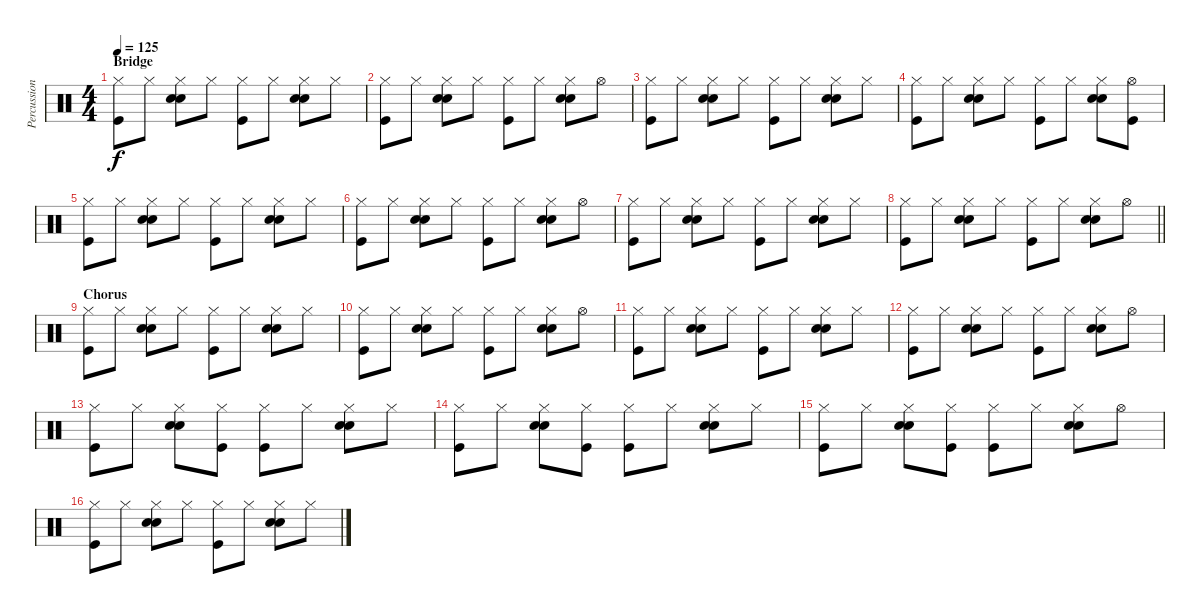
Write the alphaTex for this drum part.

\track ("Percussion" "Percussion") {instrument percussion}
\staff {score}
\articulation defaults
\ts (4 4)
\section ("" "Bridge")
\tempo 125
\clef neutral
\ks c
("Hi-Hat (closed)" "Kick (hit)").8{dy f} "Hi-Hat (closed)".8 ("Hi-Hat (closed)" "Hand Clap (hit)" "Snare (hit) 2").8 "Hi-Hat (closed)".8 ("Hi-Hat (closed)" "Kick (hit)").8 "Hi-Hat (closed)".8 ("Hi-Hat (closed)" "Hand Clap (hit)" "Snare (hit) 2").8 "Hi-Hat (closed)".8 |
("Hi-Hat (closed)" "Kick (hit)").8 "Hi-Hat (closed)".8 ("Hi-Hat (closed)" "Hand Clap (hit)" "Snare (hit) 2").8 "Hi-Hat (closed)".8 ("Hi-Hat (closed)" "Kick (hit)").8 "Hi-Hat (closed)".8 ("Hi-Hat (closed)" "Hand Clap (hit)" "Snare (hit) 2").8 "Hi-Hat (open)".8 |
("Hi-Hat (closed)" "Kick (hit)").8 "Hi-Hat (closed)".8 ("Hi-Hat (closed)" "Hand Clap (hit)" "Snare (hit) 2").8 "Hi-Hat (closed)".8 ("Hi-Hat (closed)" "Kick (hit)").8 "Hi-Hat (closed)".8 ("Hi-Hat (closed)" "Hand Clap (hit)" "Snare (hit) 2").8 "Hi-Hat (closed)".8 |
("Hi-Hat (closed)" "Kick (hit)").8 "Hi-Hat (closed)".8 ("Hi-Hat (closed)" "Hand Clap (hit)" "Snare (hit) 2").8 "Hi-Hat (closed)".8 ("Hi-Hat (closed)" "Kick (hit)").8 "Hi-Hat (closed)".8 ("Hi-Hat (closed)" "Hand Clap (hit)" "Snare (hit) 2").8 ("Hi-Hat (open)" "Kick (hit)").8 |
("Hi-Hat (closed)" "Kick (hit)").8 "Hi-Hat (closed)".8 ("Hi-Hat (closed)" "Hand Clap (hit)" "Snare (hit) 2").8 "Hi-Hat (closed)".8 ("Hi-Hat (closed)" "Kick (hit)").8 "Hi-Hat (closed)".8 ("Hi-Hat (closed)" "Hand Clap (hit)" "Snare (hit) 2").8 "Hi-Hat (closed)".8 |
("Hi-Hat (closed)" "Kick (hit)").8 "Hi-Hat (closed)".8 ("Hi-Hat (closed)" "Hand Clap (hit)" "Snare (hit) 2").8 "Hi-Hat (closed)".8 ("Hi-Hat (closed)" "Kick (hit)").8 "Hi-Hat (closed)".8 ("Hi-Hat (closed)" "Hand Clap (hit)" "Snare (hit) 2").8 "Hi-Hat (open)".8 |
("Hi-Hat (closed)" "Kick (hit)").8 "Hi-Hat (closed)".8 ("Hi-Hat (closed)" "Hand Clap (hit)" "Snare (hit) 2").8 "Hi-Hat (closed)".8 ("Hi-Hat (closed)" "Kick (hit)").8 "Hi-Hat (closed)".8 ("Hi-Hat (closed)" "Hand Clap (hit)" "Snare (hit) 2").8 "Hi-Hat (closed)".8 |
\barLineRight lightlight
("Hi-Hat (closed)" "Kick (hit)").8 "Hi-Hat (closed)".8 ("Hi-Hat (closed)" "Hand Clap (hit)" "Snare (hit) 2").8 "Hi-Hat (closed)".8 ("Hi-Hat (closed)" "Kick (hit)").8 "Hi-Hat (closed)".8 ("Hi-Hat (closed)" "Hand Clap (hit)" "Snare (hit) 2").8 "Hi-Hat (open)".8 |
\section ("" "Chorus")
("Hi-Hat (closed)" "Kick (hit)").8 "Hi-Hat (closed)".8 ("Hi-Hat (closed)" "Hand Clap (hit)" "Snare (hit) 2").8 "Hi-Hat (closed)".8 ("Hi-Hat (closed)" "Kick (hit)").8 "Hi-Hat (closed)".8 ("Hi-Hat (closed)" "Hand Clap (hit)" "Snare (hit) 2").8 "Hi-Hat (closed)".8 |
("Hi-Hat (closed)" "Kick (hit)").8 "Hi-Hat (closed)".8 ("Hi-Hat (closed)" "Hand Clap (hit)" "Snare (hit) 2").8 "Hi-Hat (closed)".8 ("Hi-Hat (closed)" "Kick (hit)").8 "Hi-Hat (closed)".8 ("Hi-Hat (closed)" "Hand Clap (hit)" "Snare (hit) 2").8 "Hi-Hat (open)".8 |
("Hi-Hat (closed)" "Kick (hit)").8 "Hi-Hat (closed)".8 ("Hi-Hat (closed)" "Hand Clap (hit)" "Snare (hit) 2").8 "Hi-Hat (closed)".8 ("Hi-Hat (closed)" "Kick (hit)").8 "Hi-Hat (closed)".8 ("Hi-Hat (closed)" "Hand Clap (hit)" "Snare (hit) 2").8 "Hi-Hat (closed)".8 |
("Hi-Hat (closed)" "Kick (hit)").8 "Hi-Hat (closed)".8 ("Hi-Hat (closed)" "Hand Clap (hit)" "Snare (hit) 2").8 "Hi-Hat (closed)".8 ("Hi-Hat (closed)" "Kick (hit)").8 "Hi-Hat (closed)".8 ("Hi-Hat (closed)" "Hand Clap (hit)" "Snare (hit) 2").8 "Hi-Hat (open)".8 |
("Hi-Hat (closed)" "Kick (hit)").8 "Hi-Hat (closed)".8 ("Hi-Hat (closed)" "Hand Clap (hit)" "Snare (hit) 2").8 ("Hi-Hat (closed)" "Kick (hit)").8 ("Hi-Hat (closed)" "Kick (hit)").8 "Hi-Hat (closed)".8 ("Hi-Hat (closed)" "Hand Clap (hit)" "Snare (hit) 2").8 "Hi-Hat (closed)".8 |
("Hi-Hat (closed)" "Kick (hit)").8 "Hi-Hat (closed)".8 ("Hi-Hat (closed)" "Hand Clap (hit)" "Snare (hit) 2").8 ("Hi-Hat (closed)" "Kick (hit)").8 ("Hi-Hat (closed)" "Kick (hit)").8 "Hi-Hat (closed)".8 ("Hi-Hat (closed)" "Hand Clap (hit)" "Snare (hit) 2").8 "Hi-Hat (closed)".8 |
("Hi-Hat (closed)" "Kick (hit)").8 "Hi-Hat (closed)".8 ("Hi-Hat (closed)" "Hand Clap (hit)" "Snare (hit) 2").8 ("Hi-Hat (closed)" "Kick (hit)").8 ("Hi-Hat (closed)" "Kick (hit)").8 "Hi-Hat (closed)".8 ("Hi-Hat (closed)" "Hand Clap (hit)" "Snare (hit) 2").8 "Hi-Hat (open)".8 |
("Hi-Hat (closed)" "Kick (hit)").8 "Hi-Hat (closed)".8 ("Hi-Hat (closed)" "Hand Clap (hit)" "Snare (hit) 2").8 "Hi-Hat (closed)".8 ("Hi-Hat (closed)" "Kick (hit)").8 "Hi-Hat (closed)".8 ("Hi-Hat (closed)" "Hand Clap (hit)" "Snare (hit) 2").8 "Hi-Hat (closed)".8
